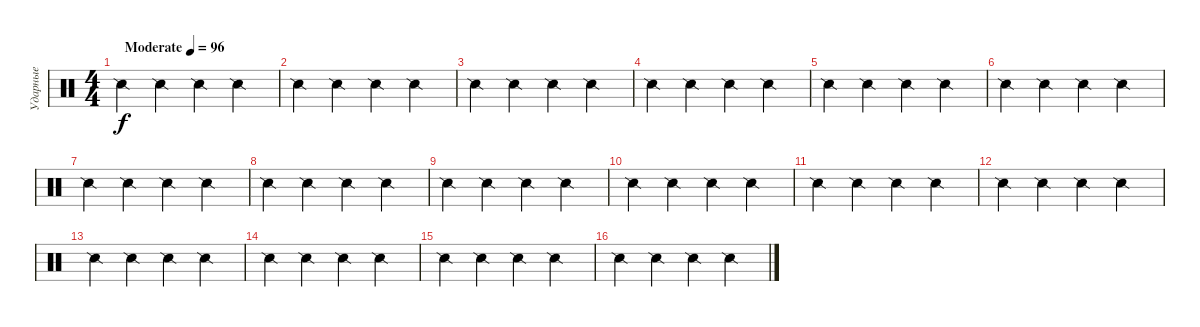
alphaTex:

\track ("Ударные" "Ударные") {instrument percussion}
\staff {score}
\articulation defaults
\ts (4 4)
\tempo (96 "Moderate")
\clef neutral
\ks c "Snare (side stick) 2".4{dy f} "Snare (side stick) 2".4 "Snare (side stick) 2".4 "Snare (side stick) 2".4
|
"Snare (side stick) 2".4 "Snare (side stick) 2".4 "Snare (side stick) 2".4 "Snare (side stick) 2".4 |
"Snare (side stick) 2".4 "Snare (side stick) 2".4 "Snare (side stick) 2".4 "Snare (side stick) 2".4 |
"Snare (side stick) 2".4 "Snare (side stick) 2".4 "Snare (side stick) 2".4 "Snare (side stick) 2".4 |
"Snare (side stick) 2".4 "Snare (side stick) 2".4 "Snare (side stick) 2".4 "Snare (side stick) 2".4 |
"Snare (side stick) 2".4 "Snare (side stick) 2".4 "Snare (side stick) 2".4 "Snare (side stick) 2".4 |
"Snare (side stick) 2".4 "Snare (side stick) 2".4 "Snare (side stick) 2".4 "Snare (side stick) 2".4 |
"Snare (side stick) 2".4 "Snare (side stick) 2".4 "Snare (side stick) 2".4 "Snare (side stick) 2".4 |
"Snare (side stick) 2".4 "Snare (side stick) 2".4 "Snare (side stick) 2".4 "Snare (side stick) 2".4 |
"Snare (side stick) 2".4 "Snare (side stick) 2".4 "Snare (side stick) 2".4 "Snare (side stick) 2".4 |
"Snare (side stick) 2".4 "Snare (side stick) 2".4 "Snare (side stick) 2".4 "Snare (side stick) 2".4 |
"Snare (side stick) 2".4 "Snare (side stick) 2".4 "Snare (side stick) 2".4 "Snare (side stick) 2".4 |
"Snare (side stick) 2".4 "Snare (side stick) 2".4 "Snare (side stick) 2".4 "Snare (side stick) 2".4 |
"Snare (side stick) 2".4 "Snare (side stick) 2".4 "Snare (side stick) 2".4 "Snare (side stick) 2".4 |
"Snare (side stick) 2".4 "Snare (side stick) 2".4 "Snare (side stick) 2".4 "Snare (side stick) 2".4 |
"Snare (side stick) 2".4 "Snare (side stick) 2".4 "Snare (side stick) 2".4 "Snare (side stick) 2".4
